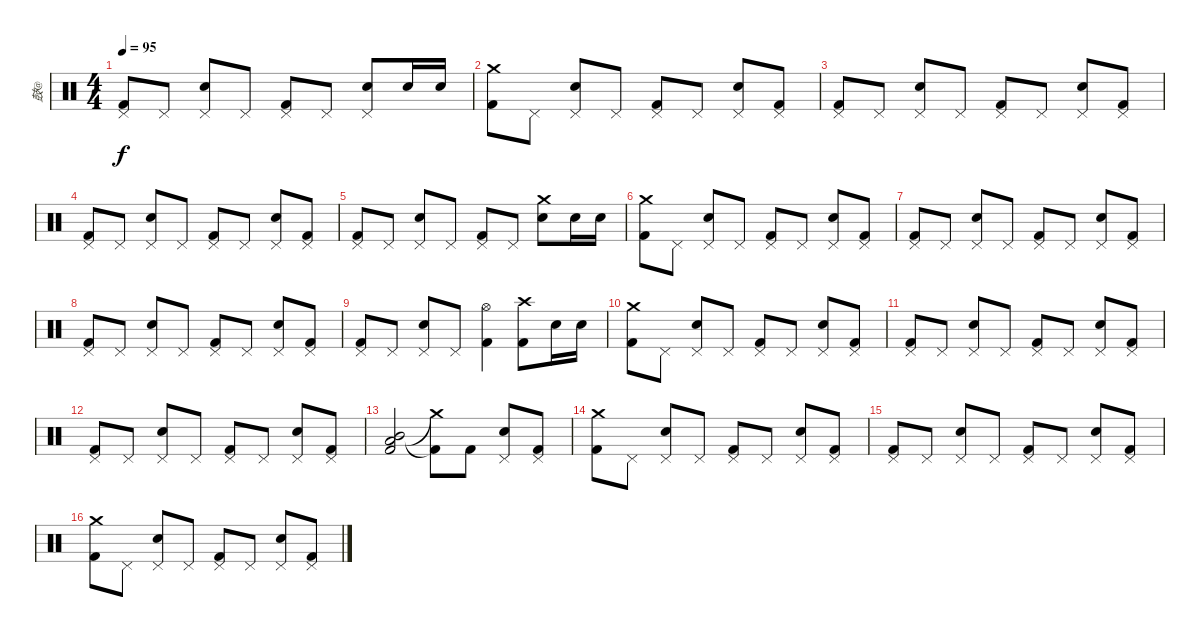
\track ("鼓@" "鼓@") {instrument percussion}
\staff {score}
\articulation defaults
\ts (4 4)
\tempo 95
\clef neutral
\ks c
("Pedal Hi-Hat (hit)" "Kick (hit) 2").8{dy f} "Pedal Hi-Hat (hit)".8 ("Pedal Hi-Hat (hit)" "Electric Snare (hit)").8 "Pedal Hi-Hat (hit)".8 ("Pedal Hi-Hat (hit)" "Kick (hit) 2").8 "Pedal Hi-Hat (hit)".8 ("Pedal Hi-Hat (hit)" "Electric Snare (hit)").8 "Electric Snare (hit)".16 "Electric Snare (hit)".16 |
("Crash medium (hit)" "Kick (hit) 2").8 "Pedal Hi-Hat (hit)".8 ("Pedal Hi-Hat (hit)" "Electric Snare (hit)").8 "Pedal Hi-Hat (hit)".8 ("Pedal Hi-Hat (hit)" "Kick (hit) 2").8 "Pedal Hi-Hat (hit)".8 ("Pedal Hi-Hat (hit)" "Electric Snare (hit)").8 ("Pedal Hi-Hat (hit)" "Kick (hit) 2").8 |
("Pedal Hi-Hat (hit)" "Kick (hit) 2").8 "Pedal Hi-Hat (hit)".8 ("Pedal Hi-Hat (hit)" "Electric Snare (hit)").8 "Pedal Hi-Hat (hit)".8 ("Pedal Hi-Hat (hit)" "Kick (hit) 2").8 "Pedal Hi-Hat (hit)".8 ("Pedal Hi-Hat (hit)" "Electric Snare (hit)").8 ("Pedal Hi-Hat (hit)" "Kick (hit) 2").8 |
("Pedal Hi-Hat (hit)" "Kick (hit) 2").8 "Pedal Hi-Hat (hit)".8 ("Pedal Hi-Hat (hit)" "Electric Snare (hit)").8 "Pedal Hi-Hat (hit)".8 ("Pedal Hi-Hat (hit)" "Kick (hit) 2").8 "Pedal Hi-Hat (hit)".8 ("Pedal Hi-Hat (hit)" "Electric Snare (hit)").8 ("Pedal Hi-Hat (hit)" "Kick (hit) 2").8 |
("Pedal Hi-Hat (hit)" "Kick (hit) 2").8 "Pedal Hi-Hat (hit)".8 ("Pedal Hi-Hat (hit)" "Electric Snare (hit)").8 "Pedal Hi-Hat (hit)".8 ("Pedal Hi-Hat (hit)" "Kick (hit) 2").8 "Pedal Hi-Hat (hit)".8 ("Crash medium (hit)" "Electric Snare (hit)").8 "Electric Snare (hit)".16 "Electric Snare (hit)".16 |
("Crash medium (hit)" "Kick (hit) 2").8 "Pedal Hi-Hat (hit)".8 ("Pedal Hi-Hat (hit)" "Electric Snare (hit)").8 "Pedal Hi-Hat (hit)".8 ("Pedal Hi-Hat (hit)" "Kick (hit) 2").8 "Pedal Hi-Hat (hit)".8 ("Pedal Hi-Hat (hit)" "Electric Snare (hit)").8 ("Pedal Hi-Hat (hit)" "Kick (hit) 2").8 |
("Pedal Hi-Hat (hit)" "Kick (hit) 2").8 "Pedal Hi-Hat (hit)".8 ("Pedal Hi-Hat (hit)" "Electric Snare (hit)").8 "Pedal Hi-Hat (hit)".8 ("Pedal Hi-Hat (hit)" "Kick (hit) 2").8 "Pedal Hi-Hat (hit)".8 ("Pedal Hi-Hat (hit)" "Electric Snare (hit)").8 ("Pedal Hi-Hat (hit)" "Kick (hit) 2").8 |
("Pedal Hi-Hat (hit)" "Kick (hit) 2").8 "Pedal Hi-Hat (hit)".8 ("Pedal Hi-Hat (hit)" "Electric Snare (hit)").8 "Pedal Hi-Hat (hit)".8 ("Pedal Hi-Hat (hit)" "Kick (hit) 2").8 "Pedal Hi-Hat (hit)".8 ("Pedal Hi-Hat (hit)" "Electric Snare (hit)").8 ("Pedal Hi-Hat (hit)" "Kick (hit) 2").8 |
("Pedal Hi-Hat (hit)" "Kick (hit) 2").8 "Pedal Hi-Hat (hit)".8 ("Pedal Hi-Hat (hit)" "Electric Snare (hit)").8 "Pedal Hi-Hat (hit)".8 ("Hi-Hat (open)" "Kick (hit) 2").4 ("Crash high (hit)" "Kick (hit) 2").8 "Electric Snare (hit)".16 "Electric Snare (hit)".16 |
("Crash medium (hit)" "Kick (hit) 2").8 "Pedal Hi-Hat (hit)".8 ("Pedal Hi-Hat (hit)" "Electric Snare (hit)").8 "Pedal Hi-Hat (hit)".8 ("Pedal Hi-Hat (hit)" "Kick (hit) 2").8 "Pedal Hi-Hat (hit)".8 ("Pedal Hi-Hat (hit)" "Electric Snare (hit)").8 ("Pedal Hi-Hat (hit)" "Kick (hit) 2").8 |
("Pedal Hi-Hat (hit)" "Kick (hit) 2").8 "Pedal Hi-Hat (hit)".8 ("Pedal Hi-Hat (hit)" "Electric Snare (hit)").8 "Pedal Hi-Hat (hit)".8 ("Pedal Hi-Hat (hit)" "Kick (hit) 2").8 "Pedal Hi-Hat (hit)".8 ("Pedal Hi-Hat (hit)" "Electric Snare (hit)").8 ("Pedal Hi-Hat (hit)" "Kick (hit) 2").8 |
("Pedal Hi-Hat (hit)" "Kick (hit) 2").8 "Pedal Hi-Hat (hit)".8 ("Pedal Hi-Hat (hit)" "Electric Snare (hit)").8 "Pedal Hi-Hat (hit)".8 ("Pedal Hi-Hat (hit)" "Kick (hit) 2").8 "Pedal Hi-Hat (hit)".8 ("Pedal Hi-Hat (hit)" "Electric Snare (hit)").8 ("Pedal Hi-Hat (hit)" "Kick (hit) 2").8 |
("Low Tom (hit)" "Mid Tom (hit)" "Kick (hit) 2").2 ("Crash medium (hit)"{t} "Kick (hit) 2"{t}).8 "Kick (hit) 2".8 ("Pedal Hi-Hat (hit)" "Electric Snare (hit)").8 ("Pedal Hi-Hat (hit)" "Kick (hit) 2").8 |
("Crash medium (hit)" "Kick (hit) 2").8 "Pedal Hi-Hat (hit)".8 ("Pedal Hi-Hat (hit)" "Electric Snare (hit)").8 "Pedal Hi-Hat (hit)".8 ("Pedal Hi-Hat (hit)" "Kick (hit) 2").8 "Pedal Hi-Hat (hit)".8 ("Pedal Hi-Hat (hit)" "Electric Snare (hit)").8 ("Pedal Hi-Hat (hit)" "Kick (hit) 2").8 |
("Pedal Hi-Hat (hit)" "Kick (hit) 2").8 "Pedal Hi-Hat (hit)".8 ("Pedal Hi-Hat (hit)" "Electric Snare (hit)").8 "Pedal Hi-Hat (hit)".8 ("Pedal Hi-Hat (hit)" "Kick (hit) 2").8 "Pedal Hi-Hat (hit)".8 ("Pedal Hi-Hat (hit)" "Electric Snare (hit)").8 ("Pedal Hi-Hat (hit)" "Kick (hit) 2").8 |
("Crash medium (hit)" "Kick (hit) 2").8 "Pedal Hi-Hat (hit)".8 ("Pedal Hi-Hat (hit)" "Electric Snare (hit)").8 "Pedal Hi-Hat (hit)".8 ("Pedal Hi-Hat (hit)" "Kick (hit) 2").8 "Pedal Hi-Hat (hit)".8 ("Pedal Hi-Hat (hit)" "Electric Snare (hit)").8 ("Pedal Hi-Hat (hit)" "Kick (hit) 2").8
